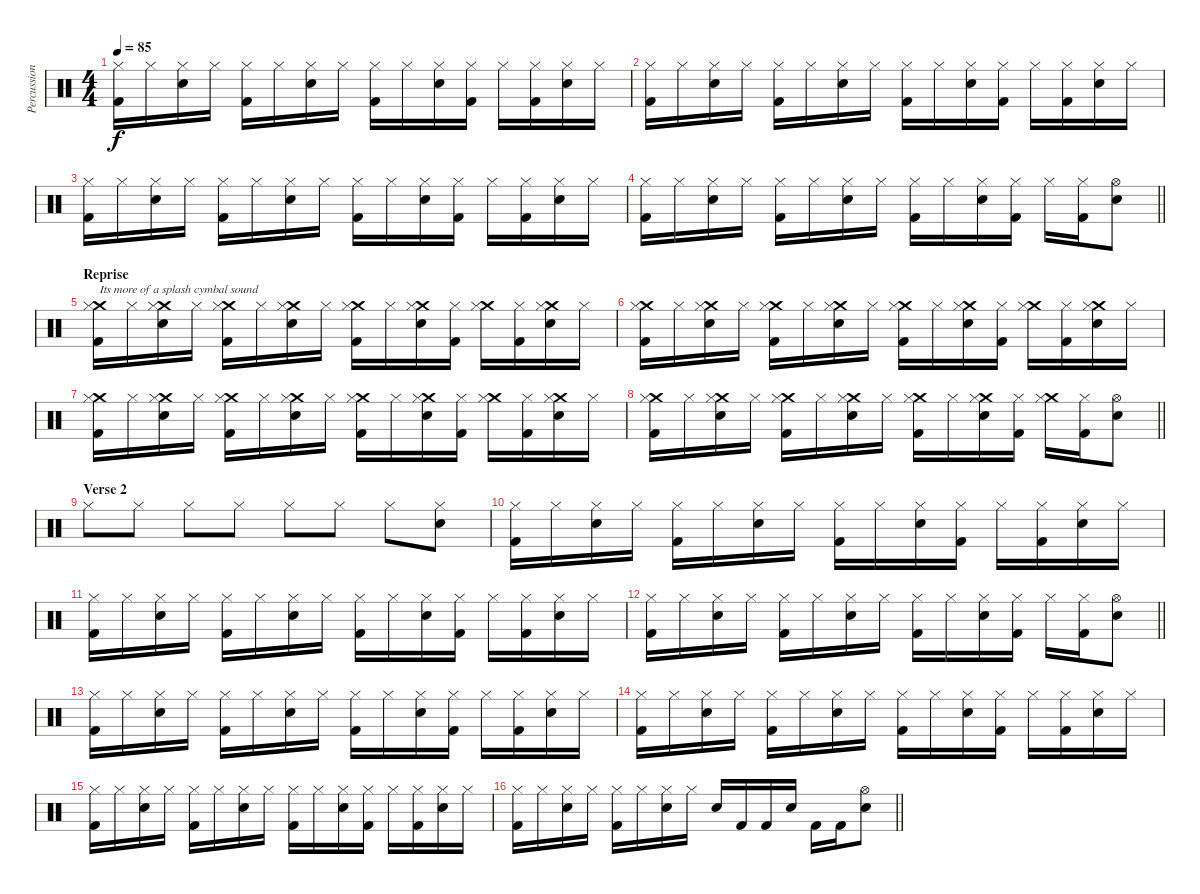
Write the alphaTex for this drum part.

\track ("Percussion" "Percussion") {instrument percussion}
\staff {score}
\articulation defaults
\ts (4 4)
\tempo 85
\clef neutral
\ks c
("Hi-Hat (closed)" "Kick (hit) 2").16{dy f} "Hi-Hat (closed)".16 ("Hi-Hat (closed)" "Snare (hit) 2").16 "Hi-Hat (closed)".16 ("Hi-Hat (closed)" "Kick (hit) 2").16 "Hi-Hat (closed)".16 ("Hi-Hat (closed)" "Snare (hit) 2").16 "Hi-Hat (closed)".16 ("Hi-Hat (closed)" "Kick (hit) 2").16 "Hi-Hat (closed)".16 ("Hi-Hat (closed)" "Snare (hit) 2").16 ("Hi-Hat (closed)" "Kick (hit) 2").16 "Hi-Hat (closed)".16 ("Hi-Hat (closed)" "Kick (hit) 2").16 ("Hi-Hat (closed)" "Snare (hit) 2").16 "Hi-Hat (closed)".16 |
("Hi-Hat (closed)" "Kick (hit) 2").16 "Hi-Hat (closed)".16 ("Hi-Hat (closed)" "Snare (hit) 2").16 "Hi-Hat (closed)".16 ("Hi-Hat (closed)" "Kick (hit) 2").16 "Hi-Hat (closed)".16 ("Hi-Hat (closed)" "Snare (hit) 2").16 "Hi-Hat (closed)".16 ("Hi-Hat (closed)" "Kick (hit) 2").16 "Hi-Hat (closed)".16 ("Hi-Hat (closed)" "Snare (hit) 2").16 ("Hi-Hat (closed)" "Kick (hit) 2").16 "Hi-Hat (closed)".16 ("Hi-Hat (closed)" "Kick (hit) 2").16 ("Hi-Hat (closed)" "Snare (hit) 2").16 "Hi-Hat (closed)".16 |
("Hi-Hat (closed)" "Kick (hit) 2").16 "Hi-Hat (closed)".16 ("Hi-Hat (closed)" "Snare (hit) 2").16 "Hi-Hat (closed)".16 ("Hi-Hat (closed)" "Kick (hit) 2").16 "Hi-Hat (closed)".16 ("Hi-Hat (closed)" "Snare (hit) 2").16 "Hi-Hat (closed)".16 ("Hi-Hat (closed)" "Kick (hit) 2").16 "Hi-Hat (closed)".16 ("Hi-Hat (closed)" "Snare (hit) 2").16 ("Hi-Hat (closed)" "Kick (hit) 2").16 "Hi-Hat (closed)".16 ("Hi-Hat (closed)" "Kick (hit) 2").16 ("Hi-Hat (closed)" "Snare (hit) 2").16 "Hi-Hat (closed)".16 |
\barLineRight lightlight
("Hi-Hat (closed)" "Kick (hit) 2").16 "Hi-Hat (closed)".16 ("Hi-Hat (closed)" "Snare (hit) 2").16 "Hi-Hat (closed)".16 ("Hi-Hat (closed)" "Kick (hit) 2").16 "Hi-Hat (closed)".16 ("Hi-Hat (closed)" "Snare (hit) 2").16 "Hi-Hat (closed)".16 ("Hi-Hat (closed)" "Kick (hit) 2").16 "Hi-Hat (closed)".16 ("Hi-Hat (closed)" "Snare (hit) 2").16 ("Hi-Hat (closed)" "Kick (hit) 2").16 "Hi-Hat (closed)".16 ("Hi-Hat (closed)" "Kick (hit) 2").16 ("Hi-Hat (open)" "Snare (hit) 2").8 |
\section ("" "Reprise")
("Crash medium (hit)" "Hi-Hat (closed)" "Kick (hit) 2").16{txt "Its more of a splash cymbal sound "} "Hi-Hat (closed)".16 ("Crash medium (hit)" "Hi-Hat (closed)" "Snare (hit) 2").16 "Hi-Hat (closed)".16 ("Crash medium (hit)" "Hi-Hat (closed)" "Kick (hit) 2").16 "Hi-Hat (closed)".16 ("Crash medium (hit)" "Hi-Hat (closed)" "Snare (hit) 2").16 "Hi-Hat (closed)".16 ("Crash medium (hit)" "Hi-Hat (closed)" "Kick (hit) 2").16 "Hi-Hat (closed)".16 ("Crash medium (hit)" "Hi-Hat (closed)" "Snare (hit) 2").16 ("Hi-Hat (closed)" "Kick (hit) 2").16 ("Crash medium (hit)" "Hi-Hat (closed)").16 ("Hi-Hat (closed)" "Kick (hit) 2").16 ("Crash medium (hit)" "Hi-Hat (closed)" "Snare (hit) 2").16 "Hi-Hat (closed)".16 |
("Crash medium (hit)" "Hi-Hat (closed)" "Kick (hit) 2").16 "Hi-Hat (closed)".16 ("Crash medium (hit)" "Hi-Hat (closed)" "Snare (hit) 2").16 "Hi-Hat (closed)".16 ("Crash medium (hit)" "Hi-Hat (closed)" "Kick (hit) 2").16 "Hi-Hat (closed)".16 ("Crash medium (hit)" "Hi-Hat (closed)" "Snare (hit) 2").16 "Hi-Hat (closed)".16 ("Crash medium (hit)" "Hi-Hat (closed)" "Kick (hit) 2").16 "Hi-Hat (closed)".16 ("Crash medium (hit)" "Hi-Hat (closed)" "Snare (hit) 2").16 ("Hi-Hat (closed)" "Kick (hit) 2").16 ("Crash medium (hit)" "Hi-Hat (closed)").16 ("Hi-Hat (closed)" "Kick (hit) 2").16 ("Crash medium (hit)" "Hi-Hat (closed)" "Snare (hit) 2").16 "Hi-Hat (closed)".16 |
("Crash medium (hit)" "Hi-Hat (closed)" "Kick (hit) 2").16 "Hi-Hat (closed)".16 ("Crash medium (hit)" "Hi-Hat (closed)" "Snare (hit) 2").16 "Hi-Hat (closed)".16 ("Crash medium (hit)" "Hi-Hat (closed)" "Kick (hit) 2").16 "Hi-Hat (closed)".16 ("Crash medium (hit)" "Hi-Hat (closed)" "Snare (hit) 2").16 "Hi-Hat (closed)".16 ("Crash medium (hit)" "Hi-Hat (closed)" "Kick (hit) 2").16 "Hi-Hat (closed)".16 ("Crash medium (hit)" "Hi-Hat (closed)" "Snare (hit) 2").16 ("Hi-Hat (closed)" "Kick (hit) 2").16 ("Crash medium (hit)" "Hi-Hat (closed)").16 ("Hi-Hat (closed)" "Kick (hit) 2").16 ("Crash medium (hit)" "Hi-Hat (closed)" "Snare (hit) 2").16 "Hi-Hat (closed)".16 |
\barLineRight lightlight
("Crash medium (hit)" "Hi-Hat (closed)" "Kick (hit) 2").16 "Hi-Hat (closed)".16 ("Crash medium (hit)" "Hi-Hat (closed)" "Snare (hit) 2").16 "Hi-Hat (closed)".16 ("Crash medium (hit)" "Hi-Hat (closed)" "Kick (hit) 2").16 "Hi-Hat (closed)".16 ("Crash medium (hit)" "Hi-Hat (closed)" "Snare (hit) 2").16 "Hi-Hat (closed)".16 ("Crash medium (hit)" "Hi-Hat (closed)" "Kick (hit) 2").16 "Hi-Hat (closed)".16 ("Crash medium (hit)" "Hi-Hat (closed)" "Snare (hit) 2").16 ("Hi-Hat (closed)" "Kick (hit) 2").16 ("Crash medium (hit)" "Hi-Hat (closed)").16 ("Hi-Hat (closed)" "Kick (hit) 2").16 ("Hi-Hat (open)" "Snare (hit) 2").8 |
\section ("" "Verse 2")
"Hi-Hat (closed)".8 "Hi-Hat (closed)".8 "Hi-Hat (closed)".8 "Hi-Hat (closed)".8 "Hi-Hat (closed)".8 "Hi-Hat (closed)".8 "Hi-Hat (closed)".8 ("Hi-Hat (closed)" "Snare (hit) 2").8 |
("Hi-Hat (closed)" "Kick (hit) 2").16 "Hi-Hat (closed)".16 ("Hi-Hat (closed)" "Snare (hit) 2").16 "Hi-Hat (closed)".16 ("Hi-Hat (closed)" "Kick (hit) 2").16 "Hi-Hat (closed)".16 ("Hi-Hat (closed)" "Snare (hit) 2").16 "Hi-Hat (closed)".16 ("Hi-Hat (closed)" "Kick (hit) 2").16 "Hi-Hat (closed)".16 ("Hi-Hat (closed)" "Snare (hit) 2").16 ("Hi-Hat (closed)" "Kick (hit) 2").16 "Hi-Hat (closed)".16 ("Hi-Hat (closed)" "Kick (hit) 2").16 ("Hi-Hat (closed)" "Snare (hit) 2").16 "Hi-Hat (closed)".16 |
("Hi-Hat (closed)" "Kick (hit) 2").16 "Hi-Hat (closed)".16 ("Hi-Hat (closed)" "Snare (hit) 2").16 "Hi-Hat (closed)".16 ("Hi-Hat (closed)" "Kick (hit) 2").16 "Hi-Hat (closed)".16 ("Hi-Hat (closed)" "Snare (hit) 2").16 "Hi-Hat (closed)".16 ("Hi-Hat (closed)" "Kick (hit) 2").16 "Hi-Hat (closed)".16 ("Hi-Hat (closed)" "Snare (hit) 2").16 ("Hi-Hat (closed)" "Kick (hit) 2").16 "Hi-Hat (closed)".16 ("Hi-Hat (closed)" "Kick (hit) 2").16 ("Hi-Hat (closed)" "Snare (hit) 2").16 "Hi-Hat (closed)".16 |
\barLineRight lightlight
("Hi-Hat (closed)" "Kick (hit) 2").16 "Hi-Hat (closed)".16 ("Hi-Hat (closed)" "Snare (hit) 2").16 "Hi-Hat (closed)".16 ("Hi-Hat (closed)" "Kick (hit) 2").16 "Hi-Hat (closed)".16 ("Hi-Hat (closed)" "Snare (hit) 2").16 "Hi-Hat (closed)".16 ("Hi-Hat (closed)" "Kick (hit) 2").16 "Hi-Hat (closed)".16 ("Hi-Hat (closed)" "Snare (hit) 2").16 ("Hi-Hat (closed)" "Kick (hit) 2").16 "Hi-Hat (closed)".16 ("Hi-Hat (closed)" "Kick (hit) 2").16 ("Hi-Hat (open)" "Snare (hit) 2").8 |
("Hi-Hat (closed)" "Kick (hit) 2").16 "Hi-Hat (closed)".16 ("Hi-Hat (closed)" "Snare (hit) 2").16 "Hi-Hat (closed)".16 ("Hi-Hat (closed)" "Kick (hit) 2").16 "Hi-Hat (closed)".16 ("Hi-Hat (closed)" "Snare (hit) 2").16 "Hi-Hat (closed)".16 ("Hi-Hat (closed)" "Kick (hit) 2").16 "Hi-Hat (closed)".16 ("Hi-Hat (closed)" "Snare (hit) 2").16 ("Hi-Hat (closed)" "Kick (hit) 2").16 "Hi-Hat (closed)".16 ("Hi-Hat (closed)" "Kick (hit) 2").16 ("Hi-Hat (closed)" "Snare (hit) 2").16 "Hi-Hat (closed)".16 |
("Hi-Hat (closed)" "Kick (hit) 2").16 "Hi-Hat (closed)".16 ("Hi-Hat (closed)" "Snare (hit) 2").16 "Hi-Hat (closed)".16 ("Hi-Hat (closed)" "Kick (hit) 2").16 "Hi-Hat (closed)".16 ("Hi-Hat (closed)" "Snare (hit) 2").16 "Hi-Hat (closed)".16 ("Hi-Hat (closed)" "Kick (hit) 2").16 "Hi-Hat (closed)".16 ("Hi-Hat (closed)" "Snare (hit) 2").16 ("Hi-Hat (closed)" "Kick (hit) 2").16 "Hi-Hat (closed)".16 ("Hi-Hat (closed)" "Kick (hit) 2").16 ("Hi-Hat (closed)" "Snare (hit) 2").16 "Hi-Hat (closed)".16 |
("Hi-Hat (closed)" "Kick (hit) 2").16 "Hi-Hat (closed)".16 ("Hi-Hat (closed)" "Snare (hit) 2").16 "Hi-Hat (closed)".16 ("Hi-Hat (closed)" "Kick (hit) 2").16 "Hi-Hat (closed)".16 ("Hi-Hat (closed)" "Snare (hit) 2").16 "Hi-Hat (closed)".16 ("Hi-Hat (closed)" "Kick (hit) 2").16 "Hi-Hat (closed)".16 ("Hi-Hat (closed)" "Snare (hit) 2").16 ("Hi-Hat (closed)" "Kick (hit) 2").16 "Hi-Hat (closed)".16 ("Hi-Hat (closed)" "Kick (hit) 2").16 ("Hi-Hat (closed)" "Snare (hit) 2").16 "Hi-Hat (closed)".16 |
\barLineRight lightlight
("Hi-Hat (closed)" "Kick (hit) 2").16 "Hi-Hat (closed)".16 ("Hi-Hat (closed)" "Snare (hit) 2").16 "Hi-Hat (closed)".16 ("Hi-Hat (closed)" "Kick (hit) 2").16 "Hi-Hat (closed)".16 ("Hi-Hat (closed)" "Snare (hit) 2").16 "Hi-Hat (closed)".16 "Snare (hit) 2".16 "Kick (hit) 2".16 "Kick (hit) 2".16 "Snare (hit) 2".16 "Kick (hit) 2".16 "Kick (hit) 2".16 ("Hi-Hat (open)" "Snare (hit) 2").8
